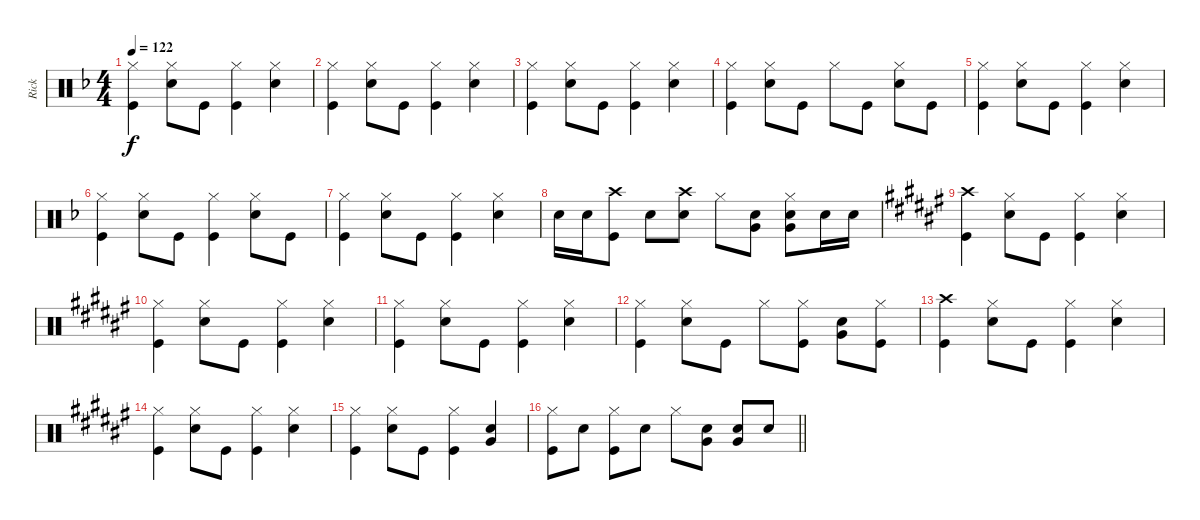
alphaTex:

\track ("Rick" "Rick") {instrument percussion}
\staff {score}
\articulation defaults
\ts (4 4)
\tempo 122
\clef neutral
\ks f
("Hi-Hat (closed)" "Kick (hit)").4{dy f} ("Hi-Hat (closed)" "Snare (hit) 2").8 "Kick (hit)".8 ("Hi-Hat (closed)" "Kick (hit)").4 ("Hi-Hat (closed)" "Snare (hit) 2").4 |
("Hi-Hat (closed)" "Kick (hit)").4 ("Hi-Hat (closed)" "Snare (hit) 2").8 "Kick (hit)".8 ("Hi-Hat (closed)" "Kick (hit)").4 ("Hi-Hat (closed)" "Snare (hit) 2").4 |
("Hi-Hat (closed)" "Kick (hit)").4 ("Hi-Hat (closed)" "Snare (hit) 2").8 "Kick (hit)".8 ("Hi-Hat (closed)" "Kick (hit)").4 ("Hi-Hat (closed)" "Snare (hit) 2").4 |
("Hi-Hat (closed)" "Kick (hit)").4 ("Hi-Hat (closed)" "Snare (hit) 2").8 "Kick (hit)".8 "Hi-Hat (closed)".8 "Kick (hit)".8 ("Hi-Hat (closed)" "Snare (hit) 2").8 "Kick (hit)".8 |
("Hi-Hat (closed)" "Kick (hit)").4 ("Hi-Hat (closed)" "Snare (hit) 2").8 "Kick (hit)".8 ("Hi-Hat (closed)" "Kick (hit)").4 ("Hi-Hat (closed)" "Snare (hit) 2").4 |
("Hi-Hat (closed)" "Kick (hit)").4 ("Hi-Hat (closed)" "Snare (hit) 2").8 "Kick (hit)".8 ("Hi-Hat (closed)" "Kick (hit)").4 ("Hi-Hat (closed)" "Snare (hit) 2").8 "Kick (hit)".8 |
("Hi-Hat (closed)" "Kick (hit)").4 ("Hi-Hat (closed)" "Snare (hit) 2").8 "Kick (hit)".8 ("Hi-Hat (closed)" "Kick (hit)").4 ("Hi-Hat (closed)" "Snare (hit) 2").4 |
"Snare (hit) 2".16 "Snare (hit) 2".16 ("Crash high (hit)" "Kick (hit)").8 "Snare (hit) 2".8 ("Crash high (hit)" "Snare (hit) 2").8 "Hi-Hat (closed)".8 ("Snare (hit) 2" "Very Low Tom (hit)").8 ("Hi-Hat (closed)" "Snare (hit) 2" "Very Low Tom (hit)").8 "Snare (hit) 2".16 "Snare (hit) 2".16 |
\ks f#
("Crash high (hit)" "Kick (hit)").4 ("Hi-Hat (closed)" "Snare (hit) 2").8 "Kick (hit)".8 ("Hi-Hat (closed)" "Kick (hit)").4 ("Hi-Hat (closed)" "Snare (hit) 2").4 |
("Hi-Hat (closed)" "Kick (hit)").4 ("Hi-Hat (closed)" "Snare (hit) 2").8 "Kick (hit)".8 ("Hi-Hat (closed)" "Kick (hit)").4 ("Hi-Hat (closed)" "Snare (hit) 2").4 |
("Hi-Hat (closed)" "Kick (hit)").4 ("Hi-Hat (closed)" "Snare (hit) 2").8 "Kick (hit)".8 ("Hi-Hat (closed)" "Kick (hit)").4 ("Hi-Hat (closed)" "Snare (hit) 2").4 |
("Hi-Hat (closed)" "Kick (hit)").4 ("Hi-Hat (closed)" "Snare (hit) 2").8 "Kick (hit)".8 "Hi-Hat (closed)".8 ("Hi-Hat (closed)" "Kick (hit)").8 ("Snare (hit) 2" "Very Low Tom (hit)").8 ("Hi-Hat (closed)" "Kick (hit)").8 |
("Crash high (hit)" "Kick (hit)").4 ("Hi-Hat (closed)" "Snare (hit) 2").8 "Kick (hit)".8 ("Hi-Hat (closed)" "Kick (hit)").4 ("Hi-Hat (closed)" "Snare (hit) 2").4 |
("Hi-Hat (closed)" "Kick (hit)").4 ("Hi-Hat (closed)" "Snare (hit) 2").8 "Kick (hit)".8 ("Hi-Hat (closed)" "Kick (hit)").4 ("Hi-Hat (closed)" "Snare (hit) 2").4 |
("Hi-Hat (closed)" "Kick (hit)").4 ("Hi-Hat (closed)" "Snare (hit) 2").8 "Kick (hit)".8 ("Hi-Hat (closed)" "Kick (hit)").4 ("Snare (hit) 2" "Very Low Tom (hit)").4 |
\barLineRight lightlight
("Hi-Hat (closed)" "Kick (hit)").8 "Snare (hit) 2".8 ("Hi-Hat (closed)" "Kick (hit)").8 "Snare (hit) 2".8 "Hi-Hat (closed)".8 ("Snare (hit) 2" "Very Low Tom (hit)").8 ("Snare (hit) 2" "Very Low Tom (hit)").8 "Snare (hit) 2".8
